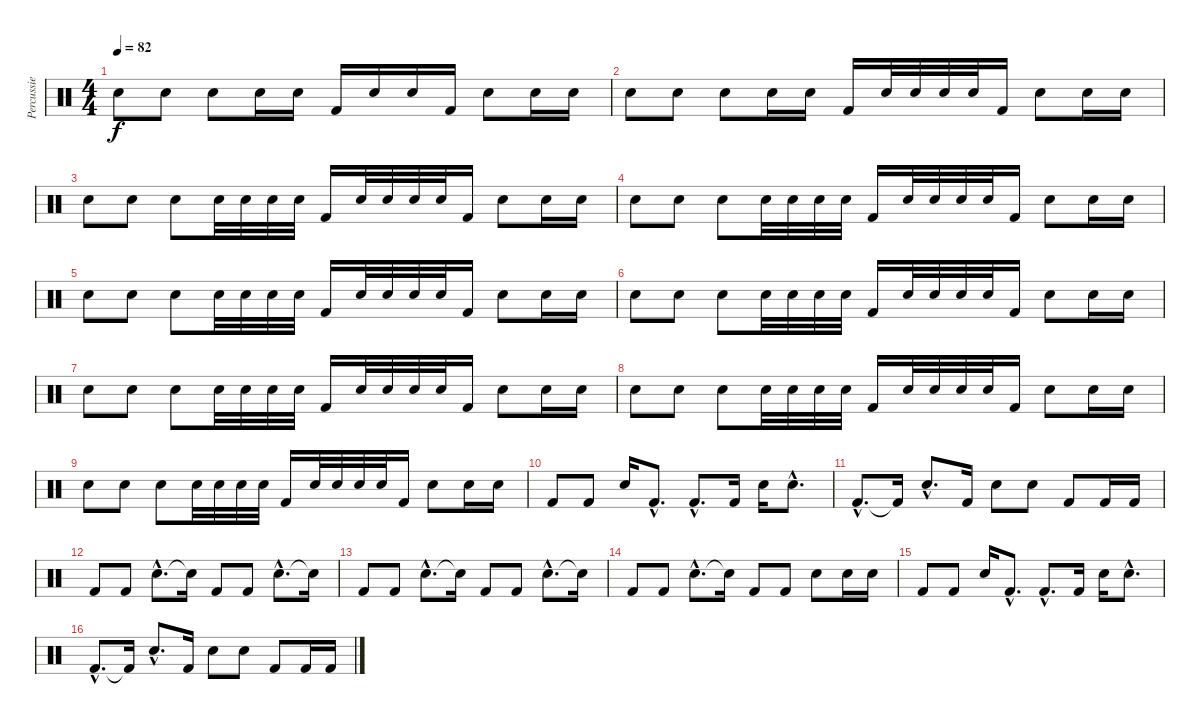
\track ("Percussie" "Percussie") {instrument percussion}
\staff {score}
\articulation defaults
\ts (4 4)
\tempo 82
\clef neutral
\ks c "Electric Snare (hit)".8{dy f} "Electric Snare (hit)".8 "Electric Snare (hit)".8 "Electric Snare (hit)".16 "Electric Snare (hit)".16 "Kick (hit) 2".16 "Electric Snare (hit)".16 "Electric Snare (hit)".16 "Kick (hit) 2".16 "Electric Snare (hit)".8 "Electric Snare (hit)".16 "Electric Snare (hit)".16
|
"Electric Snare (hit)".8 "Electric Snare (hit)".8 "Electric Snare (hit)".8 "Electric Snare (hit)".16 "Electric Snare (hit)".16 "Kick (hit) 2".16 "Electric Snare (hit)".32 "Electric Snare (hit)".32 "Electric Snare (hit)".32 "Electric Snare (hit)".32 "Kick (hit) 2".16 "Electric Snare (hit)".8 "Electric Snare (hit)".16 "Electric Snare (hit)".16 |
"Electric Snare (hit)".8 "Electric Snare (hit)".8 "Electric Snare (hit)".8 "Electric Snare (hit)".32 "Electric Snare (hit)".32 "Electric Snare (hit)".32 "Electric Snare (hit)".32 "Kick (hit) 2".16 "Electric Snare (hit)".32 "Electric Snare (hit)".32 "Electric Snare (hit)".32 "Electric Snare (hit)".32 "Kick (hit) 2".16 "Electric Snare (hit)".8 "Electric Snare (hit)".16 "Electric Snare (hit)".16 |
"Electric Snare (hit)".8 "Electric Snare (hit)".8 "Electric Snare (hit)".8 "Electric Snare (hit)".32 "Electric Snare (hit)".32 "Electric Snare (hit)".32 "Electric Snare (hit)".32 "Kick (hit) 2".16 "Electric Snare (hit)".32 "Electric Snare (hit)".32 "Electric Snare (hit)".32 "Electric Snare (hit)".32 "Kick (hit) 2".16 "Electric Snare (hit)".8 "Electric Snare (hit)".16 "Electric Snare (hit)".16 |
"Electric Snare (hit)".8 "Electric Snare (hit)".8 "Electric Snare (hit)".8 "Electric Snare (hit)".32 "Electric Snare (hit)".32 "Electric Snare (hit)".32 "Electric Snare (hit)".32 "Kick (hit) 2".16 "Electric Snare (hit)".32 "Electric Snare (hit)".32 "Electric Snare (hit)".32 "Electric Snare (hit)".32 "Kick (hit) 2".16 "Electric Snare (hit)".8 "Electric Snare (hit)".16 "Electric Snare (hit)".16 |
"Electric Snare (hit)".8 "Electric Snare (hit)".8 "Electric Snare (hit)".8 "Electric Snare (hit)".32 "Electric Snare (hit)".32 "Electric Snare (hit)".32 "Electric Snare (hit)".32 "Kick (hit) 2".16 "Electric Snare (hit)".32 "Electric Snare (hit)".32 "Electric Snare (hit)".32 "Electric Snare (hit)".32 "Kick (hit) 2".16 "Electric Snare (hit)".8 "Electric Snare (hit)".16 "Electric Snare (hit)".16 |
"Electric Snare (hit)".8 "Electric Snare (hit)".8 "Electric Snare (hit)".8 "Electric Snare (hit)".32 "Electric Snare (hit)".32 "Electric Snare (hit)".32 "Electric Snare (hit)".32 "Kick (hit) 2".16 "Electric Snare (hit)".32 "Electric Snare (hit)".32 "Electric Snare (hit)".32 "Electric Snare (hit)".32 "Kick (hit) 2".16 "Electric Snare (hit)".8 "Electric Snare (hit)".16 "Electric Snare (hit)".16 |
"Electric Snare (hit)".8 "Electric Snare (hit)".8 "Electric Snare (hit)".8 "Electric Snare (hit)".32 "Electric Snare (hit)".32 "Electric Snare (hit)".32 "Electric Snare (hit)".32 "Kick (hit) 2".16 "Electric Snare (hit)".32 "Electric Snare (hit)".32 "Electric Snare (hit)".32 "Electric Snare (hit)".32 "Kick (hit) 2".16 "Electric Snare (hit)".8 "Electric Snare (hit)".16 "Electric Snare (hit)".16 |
"Electric Snare (hit)".8 "Electric Snare (hit)".8 "Electric Snare (hit)".8 "Electric Snare (hit)".32 "Electric Snare (hit)".32 "Electric Snare (hit)".32 "Electric Snare (hit)".32 "Kick (hit) 2".16 "Electric Snare (hit)".32 "Electric Snare (hit)".32 "Electric Snare (hit)".32 "Electric Snare (hit)".32 "Kick (hit) 2".16 "Electric Snare (hit)".8 "Electric Snare (hit)".16 "Electric Snare (hit)".16 |
"Kick (hit) 2".8 "Kick (hit) 2".8 "Snare (hit) 2".16 "Kick (hit) 2"{hac}.8{d} "Kick (hit) 2"{hac}.8{d} "Kick (hit) 2".16 "Snare (hit) 2".16 "Snare (hit) 2"{hac}.8{d} |
"Kick (hit) 2"{hac}.8{d} "Kick (hit) 2"{t}.16 "Snare (hit) 2"{hac}.8{d} "Kick (hit) 2".16 "Snare (hit) 2".8 "Snare (hit) 2".8 "Kick (hit) 2".8 "Kick (hit) 2".16 "Kick (hit) 2".16 |
"Kick (hit) 2".8 "Kick (hit) 2".8 "Snare (hit) 2"{hac}.8{d} "Snare (hit)"{t}.16 "Kick (hit) 2".8 "Kick (hit) 2".8 "Snare (hit) 2"{hac}.8{d} "Snare (hit)"{t}.16 |
"Kick (hit) 2".8 "Kick (hit) 2".8 "Snare (hit) 2"{hac}.8{d} "Snare (hit)"{t}.16 "Kick (hit) 2".8 "Kick (hit) 2".8 "Snare (hit) 2"{hac}.8{d} "Snare (hit)"{t}.16 |
"Kick (hit) 2".8 "Kick (hit) 2".8 "Snare (hit) 2"{hac}.8{d} "Snare (hit)"{t}.16 "Kick (hit) 2".8 "Kick (hit) 2".8 "Snare (hit) 2".8 "Snare (hit) 2".16 "Snare (hit) 2".16 |
"Kick (hit) 2".8 "Kick (hit) 2".8 "Snare (hit) 2".16 "Kick (hit) 2"{hac}.8{d} "Kick (hit) 2"{hac}.8{d} "Kick (hit) 2".16 "Snare (hit) 2".16 "Snare (hit) 2"{hac}.8{d} |
"Kick (hit) 2"{hac}.8{d} "Kick (hit) 2"{t}.16 "Snare (hit) 2"{hac}.8{d} "Kick (hit) 2".16 "Snare (hit) 2".8 "Snare (hit) 2".8 "Kick (hit) 2".8 "Kick (hit) 2".16 "Kick (hit) 2".16
